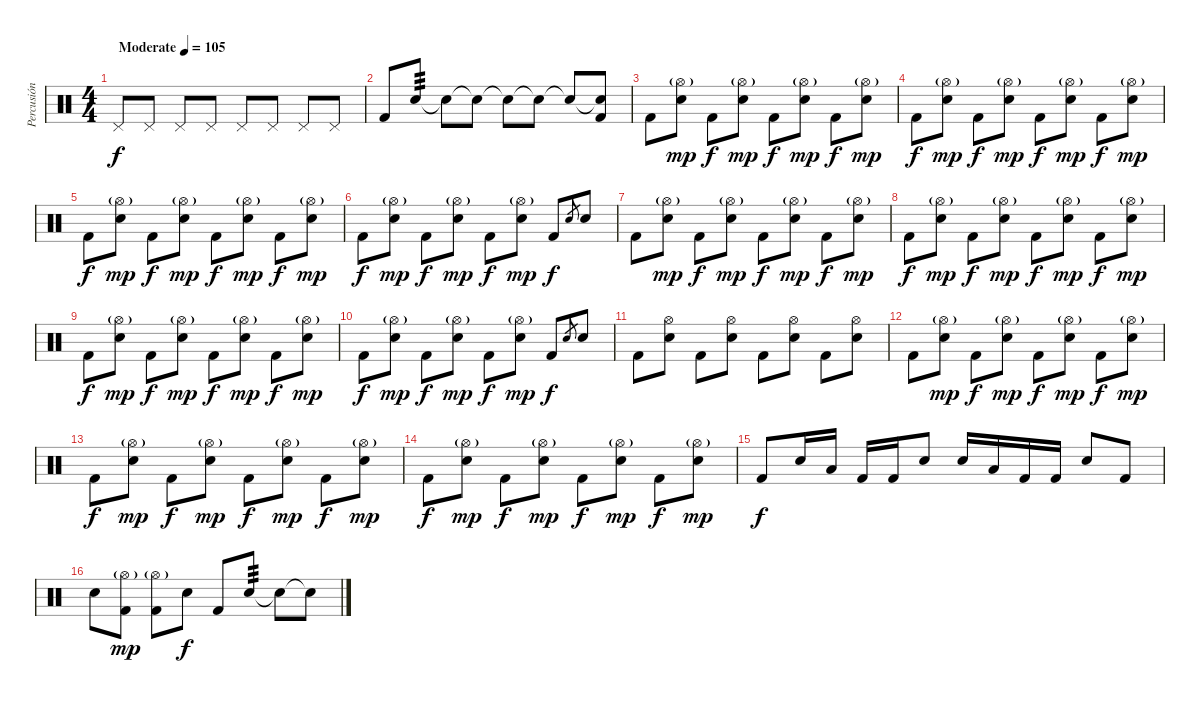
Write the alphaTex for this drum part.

\track ("Percusión" "Percusión") {instrument percussion}
\staff {score}
\articulation defaults
\ts (4 4)
\tempo (105 "Moderate")
\clef neutral
\ks c "Pedal Hi-Hat (hit)".8{dy f} "Pedal Hi-Hat (hit)".8 "Pedal Hi-Hat (hit)".8 "Pedal Hi-Hat (hit)".8 "Pedal Hi-Hat (hit)".8 "Pedal Hi-Hat (hit)".8 "Pedal Hi-Hat (hit)".8 "Pedal Hi-Hat (hit)".8
|
"Kick (hit) 2".8 "Snare (hit) 2".8{tp 3} "Snare (hit)"{t}.8 "Snare (hit)"{t}.8 "Snare (hit)"{t}.8 "Electric Snare (hit)"{t}.8 "Snare (hit)"{t}.8 ("Snare (hit)"{t} "Kick (hit) 2").8 |
"Kick (hit) 2".8 ("Hi-Hat (open)"{g} "Electric Snare (hit)").8{dy mp} "Kick (hit) 2".8{dy f} ("Hi-Hat (open)"{g} "Electric Snare (hit)").8{dy mp} "Kick (hit) 2".8{dy f} ("Hi-Hat (open)"{g} "Electric Snare (hit)").8{dy mp} "Kick (hit) 2".8{dy f} ("Hi-Hat (open)"{g} "Electric Snare (hit)").8{dy mp} |
"Kick (hit) 2".8{dy f} ("Hi-Hat (open)"{g} "Electric Snare (hit)").8{dy mp} "Kick (hit) 2".8{dy f} ("Hi-Hat (open)"{g} "Electric Snare (hit)").8{dy mp} "Kick (hit) 2".8{dy f} ("Hi-Hat (open)"{g} "Electric Snare (hit)").8{dy mp} "Kick (hit) 2".8{dy f} ("Hi-Hat (open)"{g} "Electric Snare (hit)").8{dy mp} |
"Kick (hit) 2".8{dy f} ("Hi-Hat (open)"{g} "Electric Snare (hit)").8{dy mp} "Kick (hit) 2".8{dy f} ("Hi-Hat (open)"{g} "Electric Snare (hit)").8{dy mp} "Kick (hit) 2".8{dy f} ("Hi-Hat (open)"{g} "Electric Snare (hit)").8{dy mp} "Kick (hit) 2".8{dy f} ("Hi-Hat (open)"{g} "Electric Snare (hit)").8{dy mp} |
"Kick (hit) 2".8{dy f} ("Hi-Hat (open)"{g} "Electric Snare (hit)").8{dy mp} "Kick (hit) 2".8{dy f} ("Hi-Hat (open)"{g} "Electric Snare (hit)").8{dy mp} "Kick (hit) 2".8{dy f} ("Hi-Hat (open)"{g} "Electric Snare (hit)").8{dy mp} "Kick (hit) 2".8{dy f} "Electric Snare (hit)".8{gr} "Electric Snare (hit)".8 |
"Kick (hit) 2".8 ("Hi-Hat (open)"{g} "Electric Snare (hit)").8{dy mp} "Kick (hit) 2".8{dy f} ("Hi-Hat (open)"{g} "Electric Snare (hit)").8{dy mp} "Kick (hit) 2".8{dy f} ("Hi-Hat (open)"{g} "Electric Snare (hit)").8{dy mp} "Kick (hit) 2".8{dy f} ("Hi-Hat (open)"{g} "Electric Snare (hit)").8{dy mp} |
"Kick (hit) 2".8{dy f} ("Hi-Hat (open)"{g} "Electric Snare (hit)").8{dy mp} "Kick (hit) 2".8{dy f} ("Hi-Hat (open)"{g} "Electric Snare (hit)").8{dy mp} "Kick (hit) 2".8{dy f} ("Hi-Hat (open)"{g} "Electric Snare (hit)").8{dy mp} "Kick (hit) 2".8{dy f} ("Hi-Hat (open)"{g} "Electric Snare (hit)").8{dy mp} |
"Kick (hit) 2".8{dy f} ("Hi-Hat (open)"{g} "Electric Snare (hit)").8{dy mp} "Kick (hit) 2".8{dy f} ("Hi-Hat (open)"{g} "Electric Snare (hit)").8{dy mp} "Kick (hit) 2".8{dy f} ("Hi-Hat (open)"{g} "Electric Snare (hit)").8{dy mp} "Kick (hit) 2".8{dy f} ("Hi-Hat (open)"{g} "Electric Snare (hit)").8{dy mp} |
"Kick (hit) 2".8{dy f} ("Hi-Hat (open)"{g} "Electric Snare (hit)").8{dy mp} "Kick (hit) 2".8{dy f} ("Hi-Hat (open)"{g} "Electric Snare (hit)").8{dy mp} "Kick (hit) 2".8{dy f} ("Hi-Hat (open)"{g} "Electric Snare (hit)").8{dy mp} "Kick (hit) 2".8{dy f} "Electric Snare (hit)".8{gr} "Electric Snare (hit)".8 |
"Kick (hit) 2".8 ("Hi-Hat (open)" "Electric Snare (hit)").8 "Kick (hit) 2".8 ("Hi-Hat (open)" "Electric Snare (hit)").8 "Kick (hit) 2".8 ("Hi-Hat (open)" "Electric Snare (hit)").8 "Kick (hit) 2".8 ("Hi-Hat (open)" "Electric Snare (hit)").8 |
"Kick (hit) 2".8 ("Hi-Hat (open)"{g} "Electric Snare (hit)").8{dy mp} "Kick (hit) 2".8{dy f} ("Hi-Hat (open)"{g} "Electric Snare (hit)").8{dy mp} "Kick (hit) 2".8{dy f} ("Hi-Hat (open)"{g} "Electric Snare (hit)").8{dy mp} "Kick (hit) 2".8{dy f} ("Hi-Hat (open)"{g} "Electric Snare (hit)").8{dy mp} |
"Kick (hit) 2".8{dy f} ("Hi-Hat (open)"{g} "Electric Snare (hit)").8{dy mp} "Kick (hit) 2".8{dy f} ("Hi-Hat (open)"{g} "Electric Snare (hit)").8{dy mp} "Kick (hit) 2".8{dy f} ("Hi-Hat (open)"{g} "Electric Snare (hit)").8{dy mp} "Kick (hit) 2".8{dy f} ("Hi-Hat (open)"{g} "Electric Snare (hit)").8{dy mp} |
"Kick (hit) 2".8{dy f} ("Hi-Hat (open)"{g} "Electric Snare (hit)").8{dy mp} "Kick (hit) 2".8{dy f} ("Hi-Hat (open)"{g} "Electric Snare (hit)").8{dy mp} "Kick (hit) 2".8{dy f} ("Hi-Hat (open)"{g} "Electric Snare (hit)").8{dy mp} "Kick (hit) 2".8{dy f} ("Hi-Hat (open)"{g} "Electric Snare (hit)").8{dy mp} |
"Kick (hit) 2".8{dy f} "Electric Snare (hit)".16 "Low Tom (hit)".16 "Kick (hit) 2".16 "Kick (hit) 2".16 "Electric Snare (hit)".8 "Electric Snare (hit)".16 "Low Tom (hit)".16 "Kick (hit) 2".16 "Kick (hit) 2".16 "Electric Snare (hit)".8 "Kick (hit) 2".8 |
"Electric Snare (hit)".8 ("Hi-Hat (open)"{g} "Kick (hit) 2").8{dy mp} ("Hi-Hat (open)"{g} "Kick (hit) 2").8 "Electric Snare (hit)".8{dy f} "Kick (hit) 2".8 "Electric Snare (hit)".8{tp 3} "Snare (hit)"{t}.8 "Snare (hit)"{t}.8
